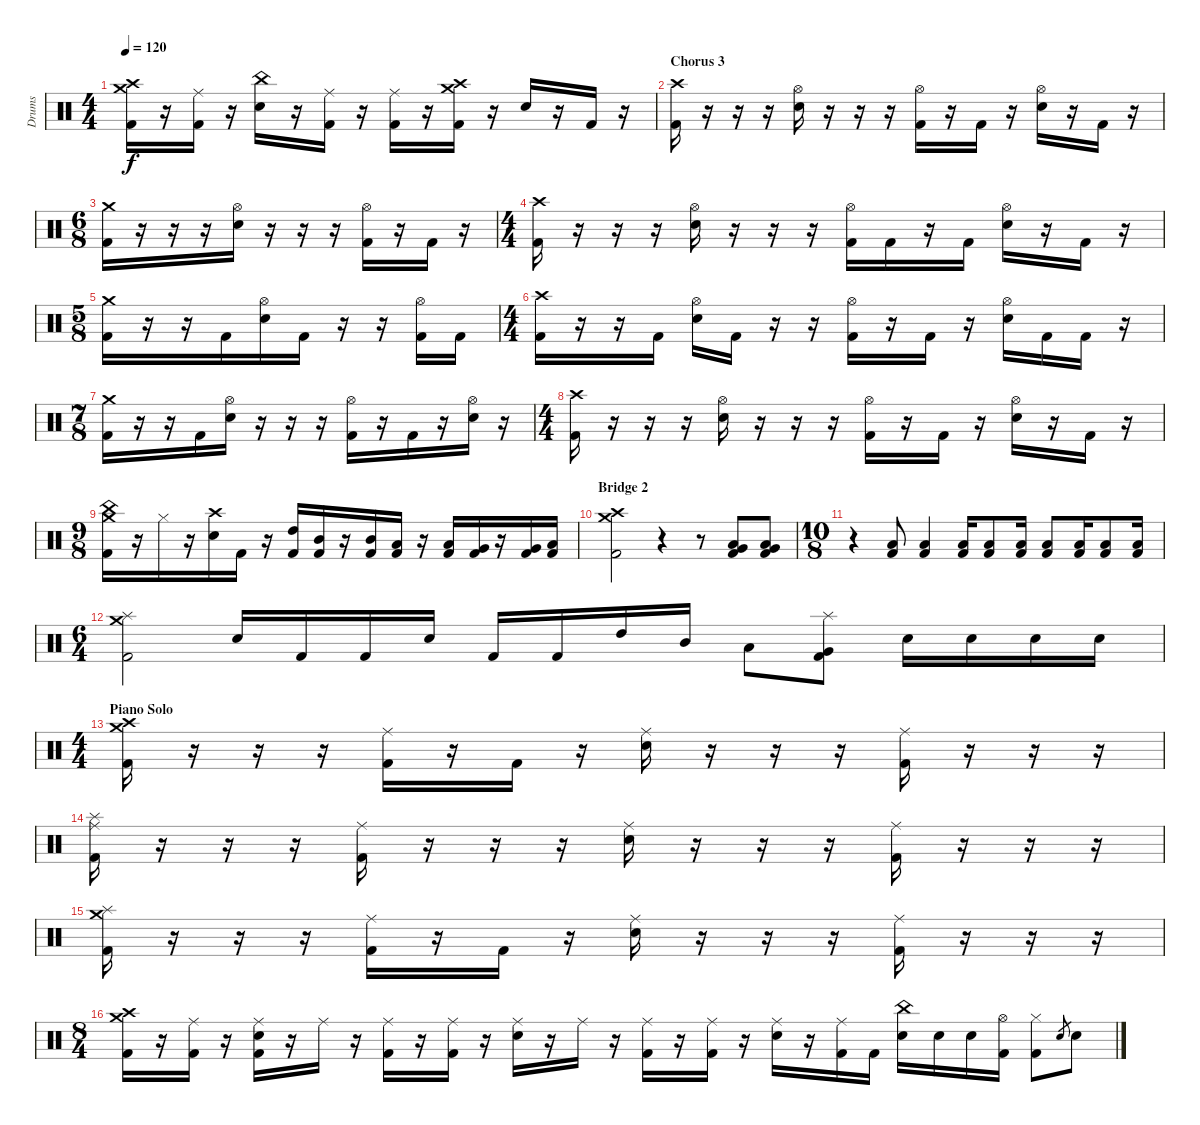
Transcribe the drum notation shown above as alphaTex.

\track ("Drums" "Drums") {instrument percussion}
\staff {score}
\articulation defaults
\ts (4 4)
\tempo 120
\clef neutral
\ks c
("Crash high (hit)" "Crash medium (hit)" "Kick (hit) 2").16{dy f} r.16 ("Ride (middle)" "Kick (hit) 2").16 r.16 ("China (hit)" "Electric Snare (hit)").16 r.16 ("Ride (middle)" "Kick (hit) 2").16 r.16 ("Ride (middle)" "Kick (hit) 2").16 r.16 ("Crash medium (hit)" "Crash high (hit)" "Kick (hit) 2").16 r.16 "Electric Snare (hit)".16 r.16 "Kick (hit) 2".16 r.16 |
\section ("" "Chorus 3")
("Crash high (hit)" "Kick (hit) 2").16 r.16 r.16 r.16 ("Hi-Hat (open)" "Electric Snare (hit)").16 r.16 r.16 r.16 ("Hi-Hat (open)" "Kick (hit) 2").16 r.16 "Kick (hit) 2".16 r.16 ("Hi-Hat (open)" "Electric Snare (hit)").16 r.16 "Kick (hit) 2".16 r.16 |
\ts (6 8)
("Crash medium (hit)" "Kick (hit) 2").16 r.16 r.16 r.16 ("Hi-Hat (open)" "Electric Snare (hit)").16 r.16 r.16 r.16 ("Hi-Hat (open)" "Kick (hit) 2").16 r.16 "Kick (hit) 2".16 r.16 |
\ts (4 4)
("Crash high (hit)" "Kick (hit) 2").16 r.16 r.16 r.16 ("Hi-Hat (open)" "Electric Snare (hit)").16 r.16 r.16 r.16 ("Hi-Hat (open)" "Kick (hit) 2").16 "Kick (hit) 2".16 r.16 "Kick (hit) 2".16 ("Hi-Hat (open)" "Electric Snare (hit)").16 r.16 "Kick (hit) 2".16 r.16 |
\ts (5 8)
("Crash medium (hit)" "Kick (hit) 2").16 r.16 r.16 "Kick (hit) 2".16 ("Hi-Hat (open)" "Electric Snare (hit)").16 "Kick (hit) 2".16 r.16 r.16 ("Hi-Hat (open)" "Kick (hit) 2").16 "Kick (hit) 2".16 |
\ts (4 4)
("Crash high (hit)" "Kick (hit) 2").16 r.16 r.16 "Kick (hit) 2".16 ("Hi-Hat (open)" "Electric Snare (hit)").16 "Kick (hit) 2".16 r.16 r.16 ("Hi-Hat (open)" "Kick (hit) 2").16 r.16 "Kick (hit) 2".16 r.16 ("Hi-Hat (open)" "Electric Snare (hit)").16 "Kick (hit) 2".16 "Kick (hit) 2".16 r.16 |
\ts (7 8)
("Crash medium (hit)" "Kick (hit) 2").16 r.16 r.16 "Kick (hit) 2".16 ("Hi-Hat (open)" "Electric Snare (hit)").16 r.16 r.16 r.16 ("Hi-Hat (open)" "Kick (hit) 2").16 r.16 "Kick (hit) 2".16 r.16 ("Hi-Hat (open)" "Electric Snare (hit)").16 r.16 |
\ts (4 4)
("Crash high (hit)" "Kick (hit) 2").16 r.16 r.16 r.16 ("Hi-Hat (open)" "Electric Snare (hit)").16 r.16 r.16 r.16 ("Hi-Hat (open)" "Kick (hit) 2").16 r.16 "Kick (hit) 2".16 r.16 ("Hi-Hat (open)" "Electric Snare (hit)").16 r.16 "Kick (hit) 2".16 r.16 |
\ts (9 8)
("China (hit)" "Crash medium (hit)" "Kick (hit) 2").16 r.16 "Hi-Hat (closed)".16 r.16 ("Crash high (hit)" "Electric Snare (hit)").16 "Kick (hit) 2".16 r.16 ("High Tom (hit)" "Kick (hit) 2").16 ("Mid Tom (hit)" "Kick (hit) 2").16 r.16 ("Mid Tom (hit)" "Kick (hit) 2").16 ("Low Tom (hit)" "Kick (hit) 2").16 r.16 ("Low Tom (hit)" "Kick (hit) 2").16 ("Very Low Tom (hit)" "Kick (hit) 2").16 r.16 ("Very Low Tom (hit)" "Kick (hit) 2").16 ("Low Floor Tom (hit)" "Kick (hit) 2").16 |
\section ("" "Bridge 2")
("Crash medium (hit)" "Crash high (hit)" "Kick (hit) 2").2 r.4 r.8 ("Very Low Tom (hit)" "Low Floor Tom (hit)" "Kick (hit) 2").8 ("Very Low Tom (hit)" "Low Floor Tom (hit)" "Kick (hit) 2").8 |
\ts (10 8)
r.4 ("Low Floor Tom (hit)" "Kick (hit) 2").8 ("Low Floor Tom (hit)" "Kick (hit) 2").4 ("Low Floor Tom (hit)" "Kick (hit) 2").16 ("Low Floor Tom (hit)" "Kick (hit) 2").8 ("Low Floor Tom (hit)" "Kick (hit) 2").16 ("Low Floor Tom (hit)" "Kick (hit) 2").8 ("Low Floor Tom (hit)" "Kick (hit) 2").16 ("Low Floor Tom (hit)" "Kick (hit) 2").8 ("Low Floor Tom (hit)" "Kick (hit) 2").16 |
\ts (6 4)
("Crash medium (hit)" "Splash (hit)" "Kick (hit) 2").2 "Electric Snare (hit)".16 "Kick (hit) 2".16 "Kick (hit) 2".16 "Electric Snare (hit)".16 "Kick (hit) 2".16 "Kick (hit) 2".16 "High Tom (hit)".16 "Mid Tom (hit)".16 "Low Tom (hit)".8 ("Splash (hit)" "Very Low Tom (hit)" "Kick (hit) 2").8 "Electric Snare (hit)".16 "Electric Snare (hit)".16 "Electric Snare (hit)".16 "Electric Snare (hit)".16 |
\ts (4 4)
\section ("" "Piano Solo")
("Crash medium (hit)" "Crash high (hit)" "Kick (hit) 2").16 r.16 r.16 r.16 ("Ride (middle)" "Kick (hit) 2").16 r.16 "Kick (hit) 2".16 r.16 ("Ride (middle)" "Electric Snare (hit)").16 r.16 r.16 r.16 ("Ride (middle)" "Kick (hit) 2").16 r.16 r.16 r.16 |
("Splash (hit)" "Ride (middle)" "Kick (hit) 2").16 r.16 r.16 r.16 ("Ride (middle)" "Kick (hit) 2").16 r.16 r.16 r.16 ("Ride (middle)" "Electric Snare (hit)").16 r.16 r.16 r.16 ("Ride (middle)" "Kick (hit) 2").16 r.16 r.16 r.16 |
("Crash medium (hit)" "Splash (hit)" "Kick (hit) 2").16 r.16 r.16 r.16 ("Ride (middle)" "Kick (hit) 2").16 r.16 "Kick (hit) 2".16 r.16 ("Ride (middle)" "Electric Snare (hit)").16 r.16 r.16 r.16 ("Ride (middle)" "Kick (hit) 2").16 r.16 r.16 r.16 |
\ts (8 4)
("Crash medium (hit)" "Crash high (hit)" "Kick (hit) 2").16 r.16 ("Ride (middle)" "Kick (hit) 2").16 r.16 ("Ride (middle)" "Electric Snare (hit)" "Kick (hit) 2").16 r.16 "Ride (middle)".16 r.16 ("Ride (middle)" "Kick (hit) 2").16 r.16 ("Ride (middle)" "Kick (hit) 2").16 r.16 ("Ride (middle)" "Electric Snare (hit)").16 r.16 "Ride (middle)".16 r.16 ("Ride (middle)" "Kick (hit) 2").16 r.16 ("Ride (middle)" "Kick (hit) 2").16 r.16 ("Ride (middle)" "Electric Snare (hit)").16 r.16 ("Ride (middle)" "Kick (hit) 2").16 "Kick (hit) 2".16 ("China (hit)" "Electric Snare (hit)").16 "Electric Snare (hit)".16 "Electric Snare (hit)".16 ("Hi-Hat (open)" "Kick (hit) 2").16 ("Hi-Hat (closed)" "Kick (hit) 2").8 "Electric Snare (hit)".8{gr} "Electric Snare (hit)".8
